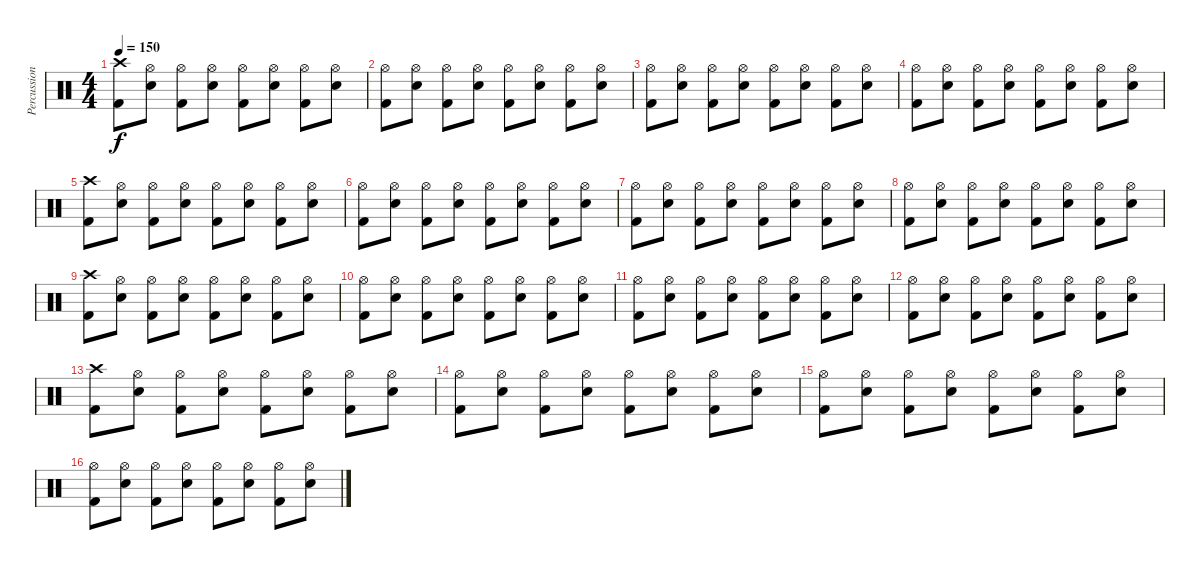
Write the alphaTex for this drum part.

\track ("Percussion" "Percussion") {instrument percussion}
\staff {score}
\articulation defaults
\ts (4 4)
\tempo 150
\clef neutral
\ks c
("Crash high (hit)" "Kick (hit) 2").8{dy f} ("Hi-Hat (open)" "Snare (hit) 2").8 ("Hi-Hat (open)" "Kick (hit) 2").8 ("Hi-Hat (open)" "Snare (hit) 2").8 ("Hi-Hat (open)" "Kick (hit) 2").8 ("Hi-Hat (open)" "Snare (hit) 2").8 ("Hi-Hat (open)" "Kick (hit) 2").8 ("Hi-Hat (open)" "Snare (hit) 2").8 |
("Hi-Hat (open)" "Kick (hit) 2").8 ("Hi-Hat (open)" "Snare (hit) 2").8 ("Hi-Hat (open)" "Kick (hit) 2").8 ("Hi-Hat (open)" "Snare (hit) 2").8 ("Hi-Hat (open)" "Kick (hit) 2").8 ("Hi-Hat (open)" "Snare (hit) 2").8 ("Hi-Hat (open)" "Kick (hit) 2").8 ("Hi-Hat (open)" "Snare (hit) 2").8 |
("Hi-Hat (open)" "Kick (hit) 2").8 ("Hi-Hat (open)" "Snare (hit) 2").8 ("Hi-Hat (open)" "Kick (hit) 2").8 ("Hi-Hat (open)" "Snare (hit) 2").8 ("Hi-Hat (open)" "Kick (hit) 2").8 ("Hi-Hat (open)" "Snare (hit) 2").8 ("Hi-Hat (open)" "Kick (hit) 2").8 ("Hi-Hat (open)" "Snare (hit) 2").8 |
("Hi-Hat (open)" "Kick (hit) 2").8 ("Hi-Hat (open)" "Snare (hit) 2").8 ("Hi-Hat (open)" "Kick (hit) 2").8 ("Hi-Hat (open)" "Snare (hit) 2").8 ("Hi-Hat (open)" "Kick (hit) 2").8 ("Hi-Hat (open)" "Snare (hit) 2").8 ("Hi-Hat (open)" "Kick (hit) 2").8 ("Hi-Hat (open)" "Snare (hit) 2").8 |
("Crash high (hit)" "Kick (hit) 2").8 ("Hi-Hat (open)" "Snare (hit) 2").8 ("Hi-Hat (open)" "Kick (hit) 2").8 ("Hi-Hat (open)" "Snare (hit) 2").8 ("Hi-Hat (open)" "Kick (hit) 2").8 ("Hi-Hat (open)" "Snare (hit) 2").8 ("Hi-Hat (open)" "Kick (hit) 2").8 ("Hi-Hat (open)" "Snare (hit) 2").8 |
("Hi-Hat (open)" "Kick (hit) 2").8 ("Hi-Hat (open)" "Snare (hit) 2").8 ("Hi-Hat (open)" "Kick (hit) 2").8 ("Hi-Hat (open)" "Snare (hit) 2").8 ("Hi-Hat (open)" "Kick (hit) 2").8 ("Hi-Hat (open)" "Snare (hit) 2").8 ("Hi-Hat (open)" "Kick (hit) 2").8 ("Hi-Hat (open)" "Snare (hit) 2").8 |
("Hi-Hat (open)" "Kick (hit) 2").8 ("Hi-Hat (open)" "Snare (hit) 2").8 ("Hi-Hat (open)" "Kick (hit) 2").8 ("Hi-Hat (open)" "Snare (hit) 2").8 ("Hi-Hat (open)" "Kick (hit) 2").8 ("Hi-Hat (open)" "Snare (hit) 2").8 ("Hi-Hat (open)" "Kick (hit) 2").8 ("Hi-Hat (open)" "Snare (hit) 2").8 |
("Hi-Hat (open)" "Kick (hit) 2").8 ("Hi-Hat (open)" "Snare (hit) 2").8 ("Hi-Hat (open)" "Kick (hit) 2").8 ("Hi-Hat (open)" "Snare (hit) 2").8 ("Hi-Hat (open)" "Kick (hit) 2").8 ("Hi-Hat (open)" "Snare (hit) 2").8 ("Hi-Hat (open)" "Kick (hit) 2").8 ("Hi-Hat (open)" "Snare (hit) 2").8 |
("Crash high (hit)" "Kick (hit) 2").8 ("Hi-Hat (open)" "Snare (hit) 2").8 ("Hi-Hat (open)" "Kick (hit) 2").8 ("Hi-Hat (open)" "Snare (hit) 2").8 ("Hi-Hat (open)" "Kick (hit) 2").8 ("Hi-Hat (open)" "Snare (hit) 2").8 ("Hi-Hat (open)" "Kick (hit) 2").8 ("Hi-Hat (open)" "Snare (hit) 2").8 |
("Hi-Hat (open)" "Kick (hit) 2").8 ("Hi-Hat (open)" "Snare (hit) 2").8 ("Hi-Hat (open)" "Kick (hit) 2").8 ("Hi-Hat (open)" "Snare (hit) 2").8 ("Hi-Hat (open)" "Kick (hit) 2").8 ("Hi-Hat (open)" "Snare (hit) 2").8 ("Hi-Hat (open)" "Kick (hit) 2").8 ("Hi-Hat (open)" "Snare (hit) 2").8 |
("Hi-Hat (open)" "Kick (hit) 2").8 ("Hi-Hat (open)" "Snare (hit) 2").8 ("Hi-Hat (open)" "Kick (hit) 2").8 ("Hi-Hat (open)" "Snare (hit) 2").8 ("Hi-Hat (open)" "Kick (hit) 2").8 ("Hi-Hat (open)" "Snare (hit) 2").8 ("Hi-Hat (open)" "Kick (hit) 2").8 ("Hi-Hat (open)" "Snare (hit) 2").8 |
("Hi-Hat (open)" "Kick (hit) 2").8 ("Hi-Hat (open)" "Snare (hit) 2").8 ("Hi-Hat (open)" "Kick (hit) 2").8 ("Hi-Hat (open)" "Snare (hit) 2").8 ("Hi-Hat (open)" "Kick (hit) 2").8 ("Hi-Hat (open)" "Snare (hit) 2").8 ("Hi-Hat (open)" "Kick (hit) 2").8 ("Hi-Hat (open)" "Snare (hit) 2").8 |
("Crash high (hit)" "Kick (hit) 2").8 ("Hi-Hat (open)" "Snare (hit) 2").8 ("Hi-Hat (open)" "Kick (hit) 2").8 ("Hi-Hat (open)" "Snare (hit) 2").8 ("Hi-Hat (open)" "Kick (hit) 2").8 ("Hi-Hat (open)" "Snare (hit) 2").8 ("Hi-Hat (open)" "Kick (hit) 2").8 ("Hi-Hat (open)" "Snare (hit) 2").8 |
("Hi-Hat (open)" "Kick (hit) 2").8 ("Hi-Hat (open)" "Snare (hit) 2").8 ("Hi-Hat (open)" "Kick (hit) 2").8 ("Hi-Hat (open)" "Snare (hit) 2").8 ("Hi-Hat (open)" "Kick (hit) 2").8 ("Hi-Hat (open)" "Snare (hit) 2").8 ("Hi-Hat (open)" "Kick (hit) 2").8 ("Hi-Hat (open)" "Snare (hit) 2").8 |
("Hi-Hat (open)" "Kick (hit) 2").8 ("Hi-Hat (open)" "Snare (hit) 2").8 ("Hi-Hat (open)" "Kick (hit) 2").8 ("Hi-Hat (open)" "Snare (hit) 2").8 ("Hi-Hat (open)" "Kick (hit) 2").8 ("Hi-Hat (open)" "Snare (hit) 2").8 ("Hi-Hat (open)" "Kick (hit) 2").8 ("Hi-Hat (open)" "Snare (hit) 2").8 |
("Hi-Hat (open)" "Kick (hit) 2").8 ("Hi-Hat (open)" "Snare (hit) 2").8 ("Hi-Hat (open)" "Kick (hit) 2").8 ("Hi-Hat (open)" "Snare (hit) 2").8 ("Hi-Hat (open)" "Kick (hit) 2").8 ("Hi-Hat (open)" "Snare (hit) 2").8 ("Hi-Hat (open)" "Kick (hit) 2").8 ("Hi-Hat (open)" "Snare (hit) 2").8
